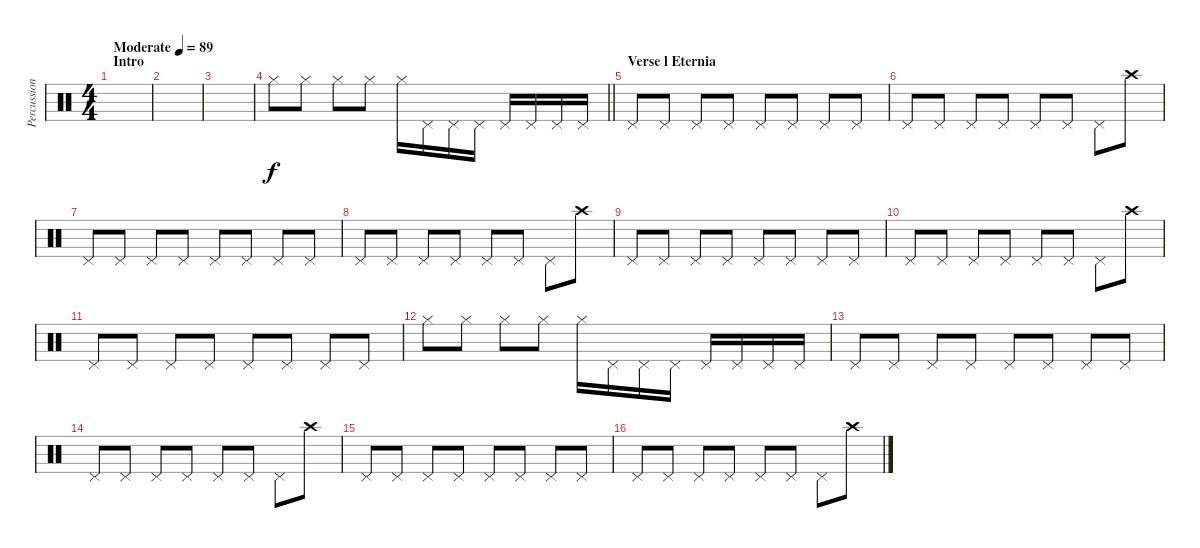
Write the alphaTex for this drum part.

\track ("Percussion" "Percussion") {instrument percussion}
\staff {score}
\articulation defaults
\ts (4 4)
\section ("" "Intro")
\tempo (89 "Moderate")
\clef neutral
\ks c
|
|
|
\barLineRight lightlight "Hi-Hat (closed)".8 "Hi-Hat (closed)".8 "Hi-Hat (closed)".8 "Hi-Hat (closed)".8 "Hi-Hat (closed)".16 "Pedal Hi-Hat (hit)".16 "Pedal Hi-Hat (hit)".16 "Pedal Hi-Hat (hit)".16 "Pedal Hi-Hat (hit)".16 "Pedal Hi-Hat (hit)".16 "Pedal Hi-Hat (hit)".16 "Pedal Hi-Hat (hit)".16
|
\section ("" "Verse l Eternia")
"Pedal Hi-Hat (hit)".8 "Pedal Hi-Hat (hit)".8 "Pedal Hi-Hat (hit)".8 "Pedal Hi-Hat (hit)".8 "Pedal Hi-Hat (hit)".8 "Pedal Hi-Hat (hit)".8 "Pedal Hi-Hat (hit)".8 "Pedal Hi-Hat (hit)".8 |
"Pedal Hi-Hat (hit)".8 "Pedal Hi-Hat (hit)".8 "Pedal Hi-Hat (hit)".8 "Pedal Hi-Hat (hit)".8 "Pedal Hi-Hat (hit)".8 "Pedal Hi-Hat (hit)".8 "Pedal Hi-Hat (hit)".8 "Crash high (hit)".8 |
"Pedal Hi-Hat (hit)".8 "Pedal Hi-Hat (hit)".8 "Pedal Hi-Hat (hit)".8 "Pedal Hi-Hat (hit)".8 "Pedal Hi-Hat (hit)".8 "Pedal Hi-Hat (hit)".8 "Pedal Hi-Hat (hit)".8 "Pedal Hi-Hat (hit)".8 |
"Pedal Hi-Hat (hit)".8 "Pedal Hi-Hat (hit)".8 "Pedal Hi-Hat (hit)".8 "Pedal Hi-Hat (hit)".8 "Pedal Hi-Hat (hit)".8 "Pedal Hi-Hat (hit)".8 "Pedal Hi-Hat (hit)".8 "Crash high (hit)".8 |
"Pedal Hi-Hat (hit)".8 "Pedal Hi-Hat (hit)".8 "Pedal Hi-Hat (hit)".8 "Pedal Hi-Hat (hit)".8 "Pedal Hi-Hat (hit)".8 "Pedal Hi-Hat (hit)".8 "Pedal Hi-Hat (hit)".8 "Pedal Hi-Hat (hit)".8 |
"Pedal Hi-Hat (hit)".8 "Pedal Hi-Hat (hit)".8 "Pedal Hi-Hat (hit)".8 "Pedal Hi-Hat (hit)".8 "Pedal Hi-Hat (hit)".8 "Pedal Hi-Hat (hit)".8 "Pedal Hi-Hat (hit)".8 "Crash high (hit)".8 |
"Pedal Hi-Hat (hit)".8 "Pedal Hi-Hat (hit)".8 "Pedal Hi-Hat (hit)".8 "Pedal Hi-Hat (hit)".8 "Pedal Hi-Hat (hit)".8 "Pedal Hi-Hat (hit)".8 "Pedal Hi-Hat (hit)".8 "Pedal Hi-Hat (hit)".8 |
"Hi-Hat (closed)".8 "Hi-Hat (closed)".8 "Hi-Hat (closed)".8 "Hi-Hat (closed)".8 "Hi-Hat (closed)".16 "Pedal Hi-Hat (hit)".16 "Pedal Hi-Hat (hit)".16 "Pedal Hi-Hat (hit)".16 "Pedal Hi-Hat (hit)".16 "Pedal Hi-Hat (hit)".16 "Pedal Hi-Hat (hit)".16 "Pedal Hi-Hat (hit)".16 |
"Pedal Hi-Hat (hit)".8 "Pedal Hi-Hat (hit)".8 "Pedal Hi-Hat (hit)".8 "Pedal Hi-Hat (hit)".8 "Pedal Hi-Hat (hit)".8 "Pedal Hi-Hat (hit)".8 "Pedal Hi-Hat (hit)".8 "Pedal Hi-Hat (hit)".8 |
"Pedal Hi-Hat (hit)".8 "Pedal Hi-Hat (hit)".8 "Pedal Hi-Hat (hit)".8 "Pedal Hi-Hat (hit)".8 "Pedal Hi-Hat (hit)".8 "Pedal Hi-Hat (hit)".8 "Pedal Hi-Hat (hit)".8 "Crash high (hit)".8 |
"Pedal Hi-Hat (hit)".8 "Pedal Hi-Hat (hit)".8 "Pedal Hi-Hat (hit)".8 "Pedal Hi-Hat (hit)".8 "Pedal Hi-Hat (hit)".8 "Pedal Hi-Hat (hit)".8 "Pedal Hi-Hat (hit)".8 "Pedal Hi-Hat (hit)".8 |
"Pedal Hi-Hat (hit)".8 "Pedal Hi-Hat (hit)".8 "Pedal Hi-Hat (hit)".8 "Pedal Hi-Hat (hit)".8 "Pedal Hi-Hat (hit)".8 "Pedal Hi-Hat (hit)".8 "Pedal Hi-Hat (hit)".8 "Crash high (hit)".8
